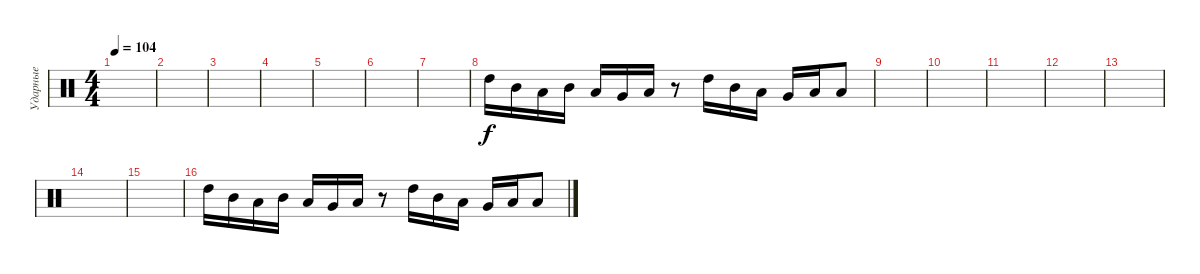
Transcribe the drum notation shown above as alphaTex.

\track ("Ударные" "Ударные") {instrument percussion}
\staff {score}
\articulation defaults
\ts (4 4)
\tempo 104
\clef neutral
\ks c
|
|
|
|
|
|
|
"High Tom (hit)".16 "Mid Tom (hit)".16 "Low Tom (hit)".16 "Mid Tom (hit)".16 "Low Tom (hit)".16 "Very Low Tom (hit)".16 "Low Floor Tom (hit)".16 r.8 "High Tom (hit)".16 "Mid Tom (hit)".16 "Low Tom (hit)".16 "Very Low Tom (hit)".16 "Low Floor Tom (hit)".16 "Low Floor Tom (hit)".8 |
|
|
|
|
|
|
|
"High Tom (hit)".16 "Mid Tom (hit)".16 "Low Tom (hit)".16 "Mid Tom (hit)".16 "Low Tom (hit)".16 "Very Low Tom (hit)".16 "Low Floor Tom (hit)".16 r.8 "High Tom (hit)".16 "Mid Tom (hit)".16 "Low Tom (hit)".16 "Very Low Tom (hit)".16 "Low Floor Tom (hit)".16 "Low Floor Tom (hit)".8
